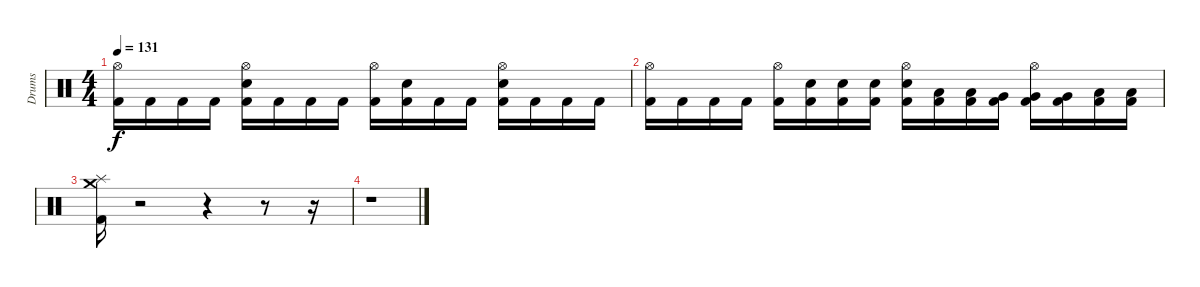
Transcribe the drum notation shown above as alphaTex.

\track ("Drums" "Drums") {instrument percussion}
\staff {score}
\articulation defaults
\ts (4 4)
\tempo 131
\clef neutral
\ks c
("Hi-Hat (open)" "Kick (hit) 2").16{dy f} "Kick (hit) 2".16 "Kick (hit) 2".16 "Kick (hit) 2".16 ("Hi-Hat (open)" "Kick (hit) 2" "Snare (hit) 2").16 "Kick (hit) 2".16 "Kick (hit) 2".16 "Kick (hit) 2".16 ("Hi-Hat (open)" "Kick (hit) 2").16 ("Kick (hit) 2" "Snare (hit) 2").16 "Kick (hit) 2".16 "Kick (hit) 2".16 ("Hi-Hat (open)" "Kick (hit) 2" "Snare (hit) 2").16 "Kick (hit) 2".16 "Kick (hit) 2".16 "Kick (hit) 2".16 |
("Hi-Hat (open)" "Kick (hit) 2").16 "Kick (hit) 2".16 "Kick (hit) 2".16 "Kick (hit) 2".16 ("Hi-Hat (open)" "Kick (hit) 2").16 ("Kick (hit) 2" "Snare (hit) 2").16 ("Kick (hit) 2" "Snare (hit) 2").16 ("Kick (hit) 2" "Snare (hit) 2").16 ("Hi-Hat (open)" "Kick (hit) 2" "Snare (hit) 2").16 ("Low Tom (hit)" "Kick (hit) 2").16 ("Low Tom (hit)" "Kick (hit) 2").16 ("Very Low Tom (hit)" "Kick (hit) 2").16 ("Very Low Tom (hit)" "Hi-Hat (open)" "Kick (hit) 2").16 ("Very Low Tom (hit)" "Kick (hit) 2").16 ("Low Floor Tom (hit)" "Kick (hit) 2").16 ("Low Floor Tom (hit)" "Kick (hit) 2").16 |
("Splash (hit)" "Crash medium (hit)" "Kick (hit) 2").16 r.2 r.4 r.8 r.16 |
r.1
